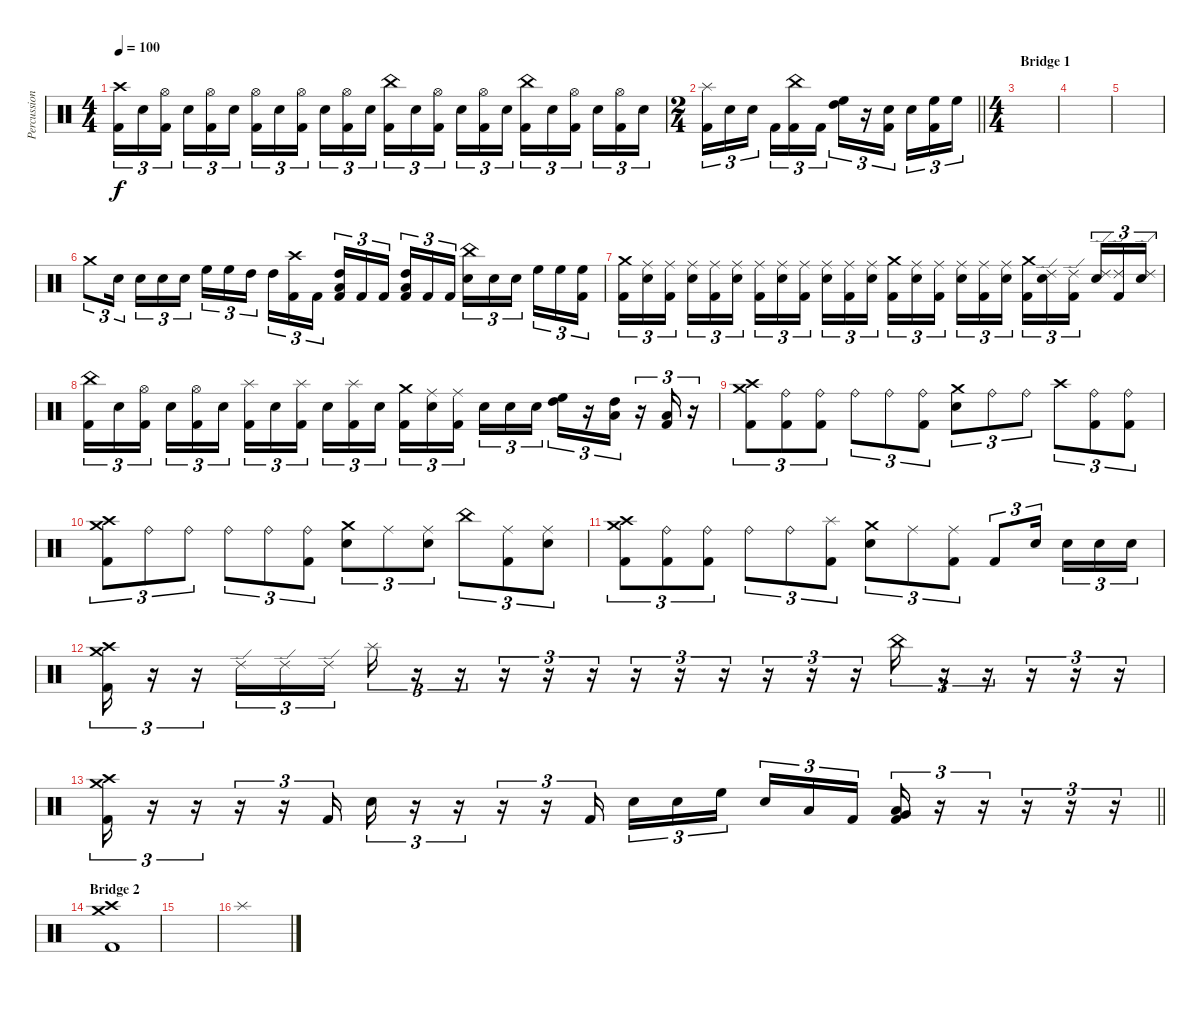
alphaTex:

\track ("Percussion" "Percussion") {instrument percussion}
\staff {score}
\articulation defaults
\ts (4 4)
\tempo 100
\clef neutral
\ks c
("Crash high (hit)" "Kick (hit) 2").16{tu (3 2) dy f} "Electric Snare (hit)".16{tu (3 2)} ("Hi-Hat (open)" "Kick (hit) 2").16{tu (3 2) beam splitsecondary} "Electric Snare (hit)".16{tu (3 2)} ("Hi-Hat (open)" "Kick (hit) 2").16{tu (3 2)} "Electric Snare (hit)".16{tu (3 2)} ("Hi-Hat (open)" "Kick (hit) 2").16{tu (3 2)} "Electric Snare (hit)".16{tu (3 2)} ("Hi-Hat (open)" "Kick (hit) 2").16{tu (3 2) beam splitsecondary} "Electric Snare (hit)".16{tu (3 2)} ("Hi-Hat (open)" "Kick (hit) 2").16{tu (3 2)} "Electric Snare (hit)".16{tu (3 2)} ("China (hit)" "Kick (hit) 2").16{tu (3 2)} "Electric Snare (hit)".16{tu (3 2)} ("Hi-Hat (open)" "Kick (hit) 2").16{tu (3 2) beam splitsecondary} "Electric Snare (hit)".16{tu (3 2)} ("Hi-Hat (open)" "Kick (hit) 2").16{tu (3 2)} "Electric Snare (hit)".16{tu (3 2)} ("China (hit)" "Kick (hit) 2").16{tu (3 2)} "Electric Snare (hit)".16{tu (3 2)} ("Hi-Hat (open)" "Kick (hit) 2").16{tu (3 2) beam splitsecondary} "Electric Snare (hit)".16{tu (3 2)} ("Hi-Hat (open)" "Kick (hit) 2").16{tu (3 2)} "Electric Snare (hit)".16{tu (3 2)} |
\ts (2 4)
\barLineRight lightlight
("Splash (hit)" "Kick (hit) 2").16{tu (3 2)} "Electric Snare (hit)".16{tu (3 2)} "Electric Snare (hit)".16{tu (3 2) beam splitsecondary} "Kick (hit) 2".16{tu (3 2)} ("China (hit)" "Kick (hit) 2").16{tu (3 2)} "Kick (hit) 2".16{tu (3 2)} ("High Floor Tom (hit)" "High Tom (hit)").16{tu (3 2)} r.16{tu (3 2)} ("Electric Snare (hit)" "Kick (hit) 2").16{tu (3 2) beam splitsecondary} "Electric Snare (hit)".16{tu (3 2)} ("High Floor Tom (hit)" "Kick (hit) 2").16{tu (3 2)} "High Floor Tom (hit)".16{tu (3 2)} |
\ts (4 4)
\section ("" "Bridge 1")
|
|
|
"Crash medium (hit)".8{tu (3 2)} "Electric Snare (hit)".16{tu (3 2) beam splitsecondary} "Electric Snare (hit)".16{tu (3 2)} "Electric Snare (hit)".16{tu (3 2)} "Electric Snare (hit)".16{tu (3 2)} "High Floor Tom (hit)".16{tu (3 2)} "High Floor Tom (hit)".16{tu (3 2)} "High Tom (hit)".16{tu (3 2) beam splitsecondary} "High Tom (hit)".16{tu (3 2)} ("Crash high (hit)" "Kick (hit) 2").16{tu (3 2)} "Kick (hit) 2".16{tu (3 2)} ("High Tom (hit)" "Low Tom (hit)" "Kick (hit) 2").16{tu (3 2)} "Kick (hit) 2".16{tu (3 2)} "Kick (hit) 2".16{tu (3 2) beam splitsecondary} ("High Tom (hit)" "Low Tom (hit)" "Kick (hit) 2").16{tu (3 2)} "Kick (hit) 2".16{tu (3 2)} "Kick (hit) 2".16{tu (3 2)} ("China (hit)" "Electric Snare (hit)").16{tu (3 2)} "Electric Snare (hit)".16{tu (3 2)} "Electric Snare (hit)".16{tu (3 2) beam splitsecondary} "High Floor Tom (hit)".16{tu (3 2)} "High Floor Tom (hit)".16{tu (3 2)} ("High Floor Tom (hit)" "Kick (hit) 2").16{tu (3 2)} |
("Crash medium (hit)" "Kick (hit) 2").16{tu (3 2)} ("Ride (middle)" "Electric Snare (hit)").16{tu (3 2)} ("Ride (middle)" "Kick (hit) 2").16{tu (3 2) beam splitsecondary} ("Ride (middle)" "Electric Snare (hit)").16{tu (3 2)} ("Ride (middle)" "Kick (hit) 2").16{tu (3 2)} ("Ride (middle)" "Electric Snare (hit)").16{tu (3 2)} ("Ride (middle)" "Kick (hit) 2").16{tu (3 2)} ("Ride (middle)" "Electric Snare (hit)").16{tu (3 2)} ("Ride (middle)" "Kick (hit) 2").16{tu (3 2) beam splitsecondary} ("Ride (middle)" "Electric Snare (hit)").16{tu (3 2)} ("Ride (middle)" "Kick (hit) 2").16{tu (3 2)} ("Ride (middle)" "Electric Snare (hit)").16{tu (3 2)} ("Crash medium (hit)" "Kick (hit) 2").16{tu (3 2)} ("Ride (middle)" "Electric Snare (hit)").16{tu (3 2)} ("Ride (middle)" "Kick (hit) 2").16{tu (3 2) beam splitsecondary} ("Ride (middle)" "Electric Snare (hit)").16{tu (3 2)} ("Ride (middle)" "Kick (hit) 2").16{tu (3 2)} ("Ride (middle)" "Electric Snare (hit)").16{tu (3 2)} ("Crash medium (hit)" "Kick (hit) 2").16{tu (3 2)} ("Ride (edge) 2" "Electric Snare (hit)").16{tu (3 2)} ("Ride (edge) 2" "Kick (hit) 2").16{tu (3 2) beam splitsecondary} ("Ride (edge) 2" "Electric Snare (hit)").16{tu (3 2)} ("Ride (edge) 2" "Kick (hit) 2").16{tu (3 2)} ("Ride (edge) 2" "Electric Snare (hit)").16{tu (3 2)} |
("China (hit)" "Kick (hit) 2").16{tu (3 2)} "Electric Snare (hit)".16{tu (3 2)} ("Hi-Hat (open)" "Kick (hit) 2").16{tu (3 2) beam splitsecondary} "Electric Snare (hit)".16{tu (3 2)} ("Hi-Hat (open)" "Kick (hit) 2").16{tu (3 2)} "Electric Snare (hit)".16{tu (3 2)} ("Splash (hit)" "Kick (hit) 2").16{tu (3 2)} "Electric Snare (hit)".16{tu (3 2)} ("Splash (hit)" "Kick (hit) 2").16{tu (3 2) beam splitsecondary} "Electric Snare (hit)".16{tu (3 2)} ("Splash (hit)" "Kick (hit) 2").16{tu (3 2)} "Electric Snare (hit)".16{tu (3 2)} ("Crash medium (hit)" "Kick (hit) 2").16{tu (3 2)} ("Ride (middle)" "Electric Snare (hit)").16{tu (3 2)} ("Ride (middle)" "Kick (hit) 2").16{tu (3 2) beam splitsecondary} "Electric Snare (hit)".16{tu (3 2)} "Electric Snare (hit)".16{tu (3 2)} "Electric Snare (hit)".16{tu (3 2)} ("High Floor Tom (hit)" "High Tom (hit)").16{tu (3 2)} r.16{tu (3 2)} ("High Tom (hit)" "Low Tom (hit)").16{tu (3 2)} r.16{tu (3 2)} ("Low Tom (hit)" "Kick (hit) 2").16{tu (3 2)} r.16{tu (3 2)} |
("Crash medium (hit)" "Crash high (hit)" "Kick (hit) 2").8{tu (3 2)} ("Ride (bell)" "Kick (hit) 2").8{tu (3 2)} ("Ride (bell)" "Kick (hit) 2").8{tu (3 2)} "Ride (bell)".8{tu (3 2)} "Ride (bell)".8{tu (3 2)} ("Ride (bell)" "Kick (hit) 2").8{tu (3 2)} ("Crash medium (hit)" "Electric Snare (hit)").8{tu (3 2)} "Ride (bell)".8{tu (3 2)} "Ride (bell)".8{tu (3 2)} "Crash high (hit)".8{tu (3 2)} ("Ride (bell)" "Kick (hit) 2").8{tu (3 2)} ("Ride (bell)" "Kick (hit) 2").8{tu (3 2)} |
("Crash medium (hit)" "Crash high (hit)" "Kick (hit) 2").8{tu (3 2)} "Ride (bell)".8{tu (3 2)} "Ride (bell)".8{tu (3 2)} "Ride (bell)".8{tu (3 2)} "Ride (bell)".8{tu (3 2)} ("Ride (bell)" "Kick (hit) 2").8{tu (3 2)} ("Crash medium (hit)" "Electric Snare (hit)").8{tu (3 2)} "Ride (middle)".8{tu (3 2)} ("Ride (middle)" "Electric Snare (hit)").8{tu (3 2)} "China (hit)".8{tu (3 2)} ("Ride (middle)" "Kick (hit) 2").8{tu (3 2)} ("Ride (middle)" "Electric Snare (hit)").8{tu (3 2)} |
("Crash medium (hit)" "Crash high (hit)" "Kick (hit) 2").8{tu (3 2)} ("Ride (bell)" "Kick (hit) 2").8{tu (3 2)} ("Ride (bell)" "Kick (hit) 2").8{tu (3 2)} "Ride (bell)".8{tu (3 2)} "Ride (bell)".8{tu (3 2)} ("Splash (hit)" "Kick (hit) 2").8{tu (3 2)} ("Crash medium (hit)" "Electric Snare (hit)").8{tu (3 2)} "Ride (middle)".8{tu (3 2)} ("Ride (middle)" "Kick (hit) 2").8{tu (3 2)} "Kick (hit) 2".8{tu (3 2)} "Electric Snare (hit)".16{tu (3 2) beam splitsecondary} "Electric Snare (hit)".16{tu (3 2)} "Electric Snare (hit)".16{tu (3 2)} "Electric Snare (hit)".16{tu (3 2)} |
("Crash high (hit)" "Crash medium (hit)" "Kick (hit) 2").16{tu (3 2)} r.16{tu (3 2)} r.16{tu (3 2)} "Ride (edge) 2".16{tu (3 2)} "Ride (edge) 2".16{tu (3 2)} "Ride (edge) 2".16{tu (3 2)} "Splash (hit)".16{tu (3 2)} r.16{tu (3 2)} r.16{tu (3 2)} r.16{tu (3 2)} r.16{tu (3 2)} r.16{tu (3 2)} r.16{tu (3 2)} r.16{tu (3 2)} r.16{tu (3 2)} r.16{tu (3 2)} r.16{tu (3 2)} r.16{tu (3 2)} "China (hit)".16{tu (3 2)} r.16{tu (3 2)} r.16{tu (3 2)} r.16{tu (3 2)} r.16{tu (3 2)} r.16{tu (3 2)} |
\barLineRight lightlight
("Crash high (hit)" "Crash medium (hit)" "Kick (hit) 2").16{tu (3 2)} r.16{tu (3 2)} r.16{tu (3 2)} r.16{tu (3 2)} r.16{tu (3 2)} "Kick (hit) 2".16{tu (3 2)} "Electric Snare (hit)".16{tu (3 2)} r.16{tu (3 2)} r.16{tu (3 2)} r.16{tu (3 2)} r.16{tu (3 2)} "Kick (hit) 2".16{tu (3 2)} "Electric Snare (hit)".16{tu (3 2)} "Electric Snare (hit)".16{tu (3 2)} "High Floor Tom (hit)".16{tu (3 2) beam splitsecondary} "Electric Snare (hit)".16{tu (3 2)} "Low Tom (hit)".16{tu (3 2)} "Kick (hit) 2".16{tu (3 2)} ("Low Tom (hit)" "Very Low Tom (hit)" "Kick (hit) 2").16{tu (3 2)} r.16{tu (3 2)} r.16{tu (3 2)} r.16{tu (3 2)} r.16{tu (3 2)} r.16{tu (3 2)} |
\section ("" "Bridge 2")
("Crash medium (hit)" "Crash high (hit)" "Kick (hit) 2").1 |
|
"Splash (hit)".1
